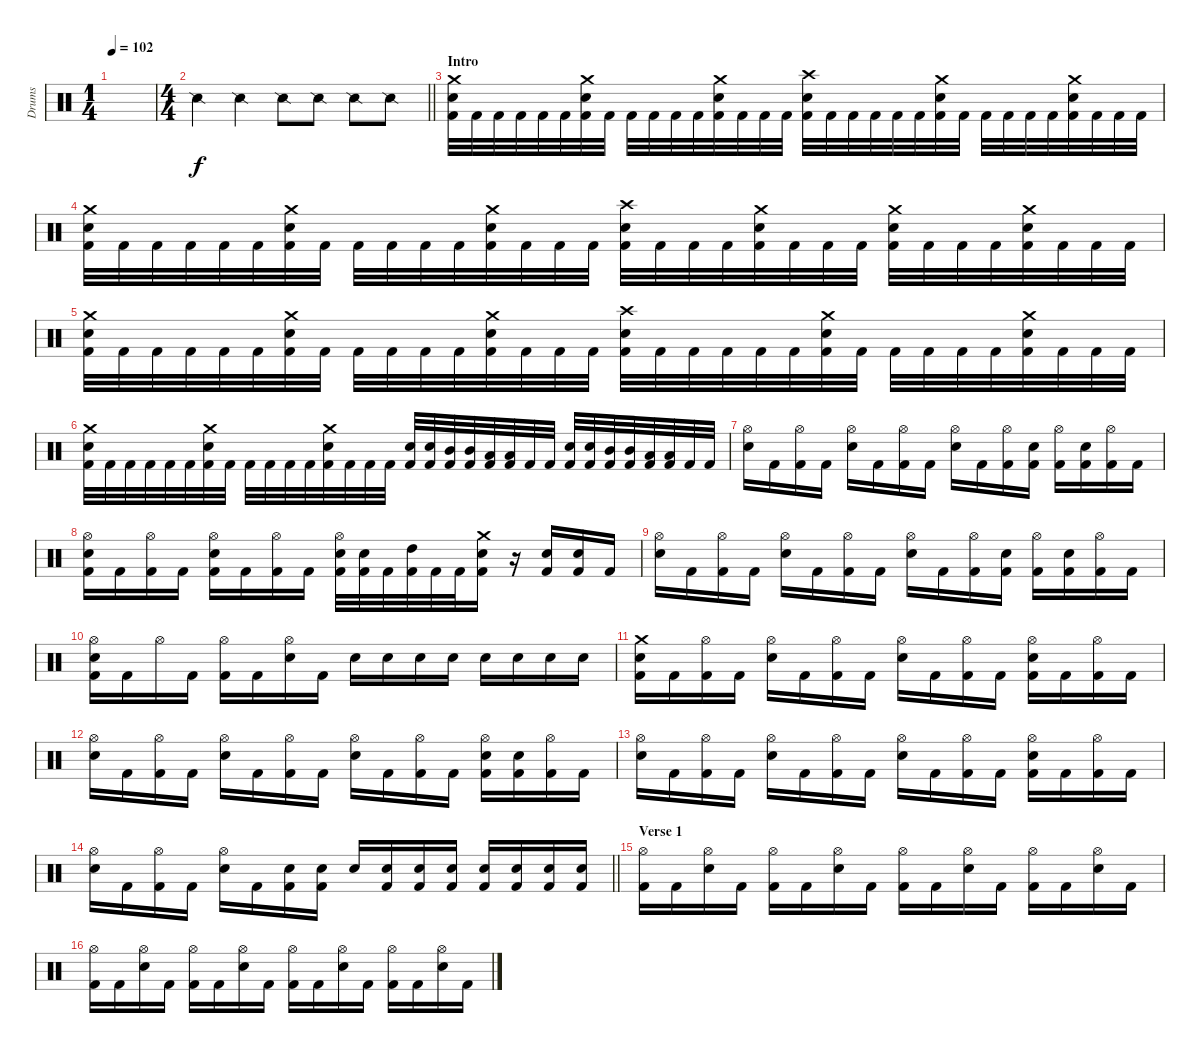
\track ("Drums" "Drums") {instrument percussion}
\staff {score}
\articulation defaults
\ts (1 4)
\tempo 102
\clef neutral
\ks c
|
\ts (4 4)
\barLineRight lightlight "Snare (side stick) 2".4 "Snare (side stick) 2".4 "Snare (side stick) 2".8 "Snare (side stick) 2".8 "Snare (side stick) 2".8 "Snare (side stick) 2".8
|
\section ("" "Intro")
("Crash medium (hit)" "Snare (hit) 2" "Kick (hit) 2").32 "Kick (hit) 2".32 "Kick (hit) 2".32 "Kick (hit) 2".32 "Kick (hit) 2".32 "Kick (hit) 2".32 ("Crash medium (hit)" "Snare (hit) 2" "Kick (hit) 2").32 "Kick (hit) 2".32 "Kick (hit) 2".32 "Kick (hit) 2".32 "Kick (hit) 2".32 "Kick (hit) 2".32 ("Crash medium (hit)" "Snare (hit) 2" "Kick (hit) 2").32 "Kick (hit) 2".32 "Kick (hit) 2".32 "Kick (hit) 2".32 ("Crash high (hit)" "Snare (hit) 2" "Kick (hit) 2").32 "Kick (hit) 2".32 "Kick (hit) 2".32 "Kick (hit) 2".32 "Kick (hit) 2".32 "Kick (hit) 2".32 ("Crash medium (hit)" "Snare (hit) 2" "Kick (hit) 2").32 "Kick (hit) 2".32 "Kick (hit) 2".32 "Kick (hit) 2".32 "Kick (hit) 2".32 "Kick (hit) 2".32 ("Crash medium (hit)" "Snare (hit) 2" "Kick (hit) 2").32 "Kick (hit) 2".32 "Kick (hit) 2".32 "Kick (hit) 2".32 |
("Crash medium (hit)" "Snare (hit) 2" "Kick (hit) 2").32 "Kick (hit) 2".32 "Kick (hit) 2".32 "Kick (hit) 2".32 "Kick (hit) 2".32 "Kick (hit) 2".32 ("Crash medium (hit)" "Snare (hit) 2" "Kick (hit) 2").32 "Kick (hit) 2".32 "Kick (hit) 2".32 "Kick (hit) 2".32 "Kick (hit) 2".32 "Kick (hit) 2".32 ("Crash medium (hit)" "Snare (hit) 2" "Kick (hit) 2").32 "Kick (hit) 2".32 "Kick (hit) 2".32 "Kick (hit) 2".32 ("Crash high (hit)" "Snare (hit) 2" "Kick (hit) 2").32 "Kick (hit) 2".32 "Kick (hit) 2".32 "Kick (hit) 2".32 ("Crash medium (hit)" "Snare (hit) 2" "Kick (hit) 2").32 "Kick (hit) 2".32 "Kick (hit) 2".32 "Kick (hit) 2".32 ("Crash medium (hit)" "Snare (hit) 2" "Kick (hit) 2").32 "Kick (hit) 2".32 "Kick (hit) 2".32 "Kick (hit) 2".32 ("Crash medium (hit)" "Snare (hit) 2" "Kick (hit) 2").32 "Kick (hit) 2".32 "Kick (hit) 2".32 "Kick (hit) 2".32 |
("Crash medium (hit)" "Snare (hit) 2" "Kick (hit) 2").32 "Kick (hit) 2".32 "Kick (hit) 2".32 "Kick (hit) 2".32 "Kick (hit) 2".32 "Kick (hit) 2".32 ("Crash medium (hit)" "Snare (hit) 2" "Kick (hit) 2").32 "Kick (hit) 2".32 "Kick (hit) 2".32 "Kick (hit) 2".32 "Kick (hit) 2".32 "Kick (hit) 2".32 ("Crash medium (hit)" "Snare (hit) 2" "Kick (hit) 2").32 "Kick (hit) 2".32 "Kick (hit) 2".32 "Kick (hit) 2".32 ("Crash high (hit)" "Snare (hit) 2" "Kick (hit) 2").32 "Kick (hit) 2".32 "Kick (hit) 2".32 "Kick (hit) 2".32 "Kick (hit) 2".32 "Kick (hit) 2".32 ("Crash medium (hit)" "Snare (hit) 2" "Kick (hit) 2").32 "Kick (hit) 2".32 "Kick (hit) 2".32 "Kick (hit) 2".32 "Kick (hit) 2".32 "Kick (hit) 2".32 ("Crash medium (hit)" "Snare (hit) 2" "Kick (hit) 2").32 "Kick (hit) 2".32 "Kick (hit) 2".32 "Kick (hit) 2".32 |
("Crash medium (hit)" "Snare (hit) 2" "Kick (hit) 2").32 "Kick (hit) 2".32 "Kick (hit) 2".32 "Kick (hit) 2".32 "Kick (hit) 2".32 "Kick (hit) 2".32 ("Crash medium (hit)" "Snare (hit) 2" "Kick (hit) 2").32 "Kick (hit) 2".32 "Kick (hit) 2".32 "Kick (hit) 2".32 "Kick (hit) 2".32 "Kick (hit) 2".32 ("Crash medium (hit)" "Snare (hit) 2" "Kick (hit) 2").32 "Kick (hit) 2".32 "Kick (hit) 2".32 "Kick (hit) 2".32 ("Snare (hit) 2" "Kick (hit) 2").32 ("Snare (hit) 2" "Kick (hit) 2").32 ("Mid Tom (hit)" "Kick (hit) 2").32 ("Mid Tom (hit)" "Kick (hit) 2").32 ("Low Tom (hit)" "Kick (hit) 2").32 ("Low Tom (hit)" "Kick (hit) 2").32 "Kick (hit) 2".32 "Kick (hit) 2".32 ("Snare (hit) 2" "Kick (hit) 2").32 ("Snare (hit) 2" "Kick (hit) 2").32 ("Mid Tom (hit)" "Kick (hit) 2").32 ("Mid Tom (hit)" "Kick (hit) 2").32 ("Low Tom (hit)" "Kick (hit) 2").32 ("Low Tom (hit)" "Kick (hit) 2").32 "Kick (hit) 2".32 "Kick (hit) 2".32 |
("Hi-Hat (open)" "Snare (hit) 2").16 "Kick (hit) 2".16 ("Hi-Hat (open)" "Kick (hit) 2").16 "Kick (hit) 2".16 ("Hi-Hat (open)" "Snare (hit) 2").16 "Kick (hit) 2".16 ("Hi-Hat (open)" "Kick (hit) 2").16 "Kick (hit) 2".16 ("Hi-Hat (open)" "Snare (hit) 2").16 "Kick (hit) 2".16 ("Hi-Hat (open)" "Kick (hit) 2").16 ("Snare (hit) 2" "Kick (hit) 2").16 ("Hi-Hat (open)" "Kick (hit) 2").16 ("Snare (hit) 2" "Kick (hit) 2").16 ("Hi-Hat (open)" "Kick (hit) 2").16 "Kick (hit) 2".16 |
("Hi-Hat (open)" "Snare (hit) 2" "Kick (hit) 2").16 "Kick (hit) 2".16 ("Hi-Hat (open)" "Kick (hit) 2").16 "Kick (hit) 2".16 ("Hi-Hat (open)" "Snare (hit) 2" "Kick (hit) 2").16 "Kick (hit) 2".16 ("Hi-Hat (open)" "Kick (hit) 2").16 "Kick (hit) 2".16 ("Hi-Hat (open)" "Snare (hit) 2" "Kick (hit) 2").32 ("Snare (hit) 2" "Kick (hit) 2").32 "Kick (hit) 2".32 ("High Tom (hit)" "Kick (hit) 2").32 "Kick (hit) 2".32 "Kick (hit) 2".32 ("Crash medium (hit)" "Snare (hit) 2" "Kick (hit) 2").16 r.16 ("Snare (hit) 2" "Kick (hit) 2").16 ("Snare (hit) 2" "Kick (hit) 2").16 "Kick (hit) 2".16 |
("Hi-Hat (open)" "Snare (hit) 2").16 "Kick (hit) 2".16 ("Hi-Hat (open)" "Kick (hit) 2").16 "Kick (hit) 2".16 ("Hi-Hat (open)" "Snare (hit) 2").16 "Kick (hit) 2".16 ("Hi-Hat (open)" "Kick (hit) 2").16 "Kick (hit) 2".16 ("Hi-Hat (open)" "Snare (hit) 2").16 "Kick (hit) 2".16 ("Hi-Hat (open)" "Kick (hit) 2").16 ("Snare (hit) 2" "Kick (hit) 2").16 ("Hi-Hat (open)" "Kick (hit) 2").16 ("Snare (hit) 2" "Kick (hit) 2").16 ("Hi-Hat (open)" "Kick (hit) 2").16 "Kick (hit) 2".16 |
("Hi-Hat (open)" "Snare (hit) 2" "Kick (hit) 2").16 "Kick (hit) 2".16 "Hi-Hat (open)".16 "Kick (hit) 2".16 ("Hi-Hat (open)" "Kick (hit) 2").16 "Kick (hit) 2".16 ("Hi-Hat (open)" "Snare (hit) 2").16 "Kick (hit) 2".16 "Snare (hit) 2".16 "Snare (hit) 2".16 "Snare (hit) 2".16 "Snare (hit) 2".16 "Snare (hit) 2".16 "Snare (hit) 2".16 "Snare (hit) 2".16 "Snare (hit) 2".16 |
("Crash medium (hit)" "Snare (hit) 2" "Kick (hit) 2").16 "Kick (hit) 2".16 ("Hi-Hat (open)" "Kick (hit) 2").16 "Kick (hit) 2".16 ("Hi-Hat (open)" "Snare (hit) 2").16 "Kick (hit) 2".16 ("Hi-Hat (open)" "Kick (hit) 2").16 "Kick (hit) 2".16 ("Hi-Hat (open)" "Snare (hit) 2").16 "Kick (hit) 2".16 ("Hi-Hat (open)" "Kick (hit) 2").16 "Kick (hit) 2".16 ("Hi-Hat (open)" "Snare (hit) 2" "Kick (hit) 2").16 "Kick (hit) 2".16 ("Hi-Hat (open)" "Kick (hit) 2").16 "Kick (hit) 2".16 |
("Hi-Hat (open)" "Snare (hit) 2").16 "Kick (hit) 2".16 ("Hi-Hat (open)" "Kick (hit) 2").16 "Kick (hit) 2".16 ("Hi-Hat (open)" "Snare (hit) 2").16 "Kick (hit) 2".16 ("Hi-Hat (open)" "Kick (hit) 2").16 "Kick (hit) 2".16 ("Hi-Hat (open)" "Snare (hit) 2").16 "Kick (hit) 2".16 ("Hi-Hat (open)" "Kick (hit) 2").16 "Kick (hit) 2".16 ("Hi-Hat (open)" "Snare (hit) 2" "Kick (hit) 2").16 ("Snare (hit) 2" "Kick (hit) 2").16 ("Hi-Hat (open)" "Kick (hit) 2").16 "Kick (hit) 2".16 |
("Hi-Hat (open)" "Snare (hit) 2").16 "Kick (hit) 2".16 ("Hi-Hat (open)" "Kick (hit) 2").16 "Kick (hit) 2".16 ("Hi-Hat (open)" "Snare (hit) 2").16 "Kick (hit) 2".16 ("Hi-Hat (open)" "Kick (hit) 2").16 "Kick (hit) 2".16 ("Hi-Hat (open)" "Snare (hit) 2").16 "Kick (hit) 2".16 ("Hi-Hat (open)" "Kick (hit) 2").16 "Kick (hit) 2".16 ("Hi-Hat (open)" "Snare (hit) 2" "Kick (hit) 2").16 "Kick (hit) 2".16 ("Hi-Hat (open)" "Kick (hit) 2").16 "Kick (hit) 2".16 |
\barLineRight lightlight
("Hi-Hat (open)" "Snare (hit) 2").16 "Kick (hit) 2".16 ("Hi-Hat (open)" "Kick (hit) 2").16 "Kick (hit) 2".16 ("Hi-Hat (open)" "Snare (hit) 2").16 "Kick (hit) 2".16 ("Snare (hit) 2" "Kick (hit) 2").16 ("Snare (hit) 2" "Kick (hit) 2").16 "Snare (hit) 2".16 ("Snare (hit) 2" "Kick (hit) 2").16 ("Snare (hit) 2" "Kick (hit) 2").16 ("Snare (hit) 2" "Kick (hit) 2").16 ("Snare (hit) 2" "Kick (hit) 2").16 ("Snare (hit) 2" "Kick (hit) 2").16 ("Snare (hit) 2" "Kick (hit) 2").16 ("Snare (hit) 2" "Kick (hit) 2").16 |
\section ("" "Verse 1")
("Hi-Hat (open)" "Kick (hit) 2").16 "Kick (hit) 2".16 ("Hi-Hat (open)" "Snare (hit) 2").16 "Kick (hit) 2".16 ("Hi-Hat (open)" "Kick (hit) 2").16 "Kick (hit) 2".16 ("Hi-Hat (open)" "Snare (hit) 2").16 "Kick (hit) 2".16 ("Hi-Hat (open)" "Kick (hit) 2").16 "Kick (hit) 2".16 ("Hi-Hat (open)" "Snare (hit) 2").16 "Kick (hit) 2".16 ("Hi-Hat (open)" "Kick (hit) 2").16 "Kick (hit) 2".16 ("Hi-Hat (open)" "Snare (hit) 2").16 "Kick (hit) 2".16 |
("Hi-Hat (open)" "Kick (hit) 2").16 "Kick (hit) 2".16 ("Hi-Hat (open)" "Snare (hit) 2").16 "Kick (hit) 2".16 ("Hi-Hat (open)" "Kick (hit) 2").16 "Kick (hit) 2".16 ("Hi-Hat (open)" "Snare (hit) 2").16 "Kick (hit) 2".16 ("Hi-Hat (open)" "Kick (hit) 2").16 "Kick (hit) 2".16 ("Hi-Hat (open)" "Snare (hit) 2").16 "Kick (hit) 2".16 ("Hi-Hat (open)" "Kick (hit) 2").16 "Kick (hit) 2".16 ("Hi-Hat (open)" "Snare (hit) 2").16 "Kick (hit) 2".16
